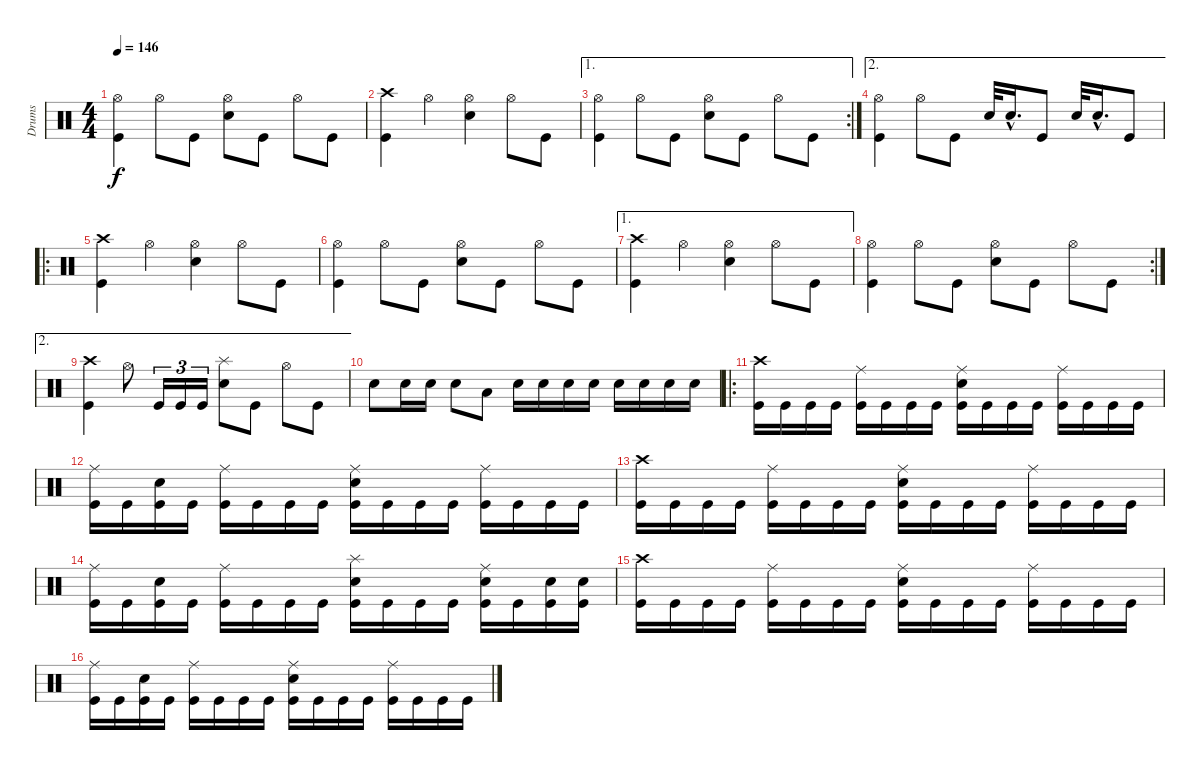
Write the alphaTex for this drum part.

\track ("Drums" "Drums") {instrument percussion}
\staff {score}
\articulation defaults
\ts (4 4)
\tempo 146
\clef neutral
\ks c
("Hi-Hat (open)" "Kick (hit)").4{dy f} "Hi-Hat (open)".8 "Kick (hit)".8 ("Hi-Hat (open)" "Electric Snare (hit)").8 "Kick (hit)".8 "Hi-Hat (open)".8 "Kick (hit)".8 |
("Crash high (hit)" "Kick (hit)").4 "Hi-Hat (open)".4 ("Hi-Hat (open)" "Electric Snare (hit)").4 "Hi-Hat (open)".8 "Kick (hit)".8 |
\ae 1
\rc 2
("Hi-Hat (open)" "Kick (hit)").4 "Hi-Hat (open)".8 "Kick (hit)".8 ("Hi-Hat (open)" "Electric Snare (hit)").8 "Kick (hit)".8 "Hi-Hat (open)".8 "Kick (hit)".8 |
\ae 2
("Hi-Hat (open)" "Kick (hit)").4 "Hi-Hat (open)".8 "Kick (hit)".8 "Electric Snare (hit)".32 "Electric Snare (hit)"{hac}.16{d} "Kick (hit)".8 "Electric Snare (hit)".32 "Electric Snare (hit)"{hac}.16{d} "Kick (hit)".8 |
\ro
("Crash high (hit)" "Kick (hit)").4 "Hi-Hat (open)".4 ("Hi-Hat (open)" "Electric Snare (hit)").4 "Hi-Hat (open)".8 "Kick (hit)".8 |
("Hi-Hat (open)" "Kick (hit)").4 "Hi-Hat (open)".8 "Kick (hit)".8 ("Hi-Hat (open)" "Electric Snare (hit)").8 "Kick (hit)".8 "Hi-Hat (open)".8 "Kick (hit)".8 |
\ae 1
("Crash high (hit)" "Kick (hit)").4 "Hi-Hat (open)".4 ("Hi-Hat (open)" "Electric Snare (hit)").4 "Hi-Hat (open)".8 "Kick (hit)".8 |
\rc 2
("Hi-Hat (open)" "Kick (hit)").4 "Hi-Hat (open)".8 "Kick (hit)".8 ("Hi-Hat (open)" "Electric Snare (hit)").8 "Kick (hit)".8 "Hi-Hat (open)".8 "Kick (hit)".8 |
\ae 2
("Crash high (hit)" "Kick (hit)").4 "Hi-Hat (open)".8 "Kick (hit)".16{tu (3 2)} "Kick (hit)".16{tu (3 2)} "Kick (hit)".16{tu (3 2)} ("Splash (hit)" "Electric Snare (hit)").8 "Kick (hit)".8 "Hi-Hat (open)".8 "Kick (hit)".8 |
"Electric Snare (hit)".8 "Electric Snare (hit)".16 "Electric Snare (hit)".16 "Electric Snare (hit)".8 "Low Tom (hit)".8 "Electric Snare (hit)".16 "Electric Snare (hit)".16 "Electric Snare (hit)".16 "Electric Snare (hit)".16 "Electric Snare (hit)".16 "Electric Snare (hit)".16 "Electric Snare (hit)".16 "Electric Snare (hit)".16 |
\ro
("Crash high (hit)" "Kick (hit)").16 "Kick (hit)".16 "Kick (hit)".16 "Kick (hit)".16 ("Ride (middle)" "Kick (hit)").16 "Kick (hit)".16 "Kick (hit)".16 "Kick (hit)".16 ("Ride (middle)" "Electric Snare (hit)" "Kick (hit)").16 "Kick (hit)".16 "Kick (hit)".16 "Kick (hit)".16 ("Ride (middle)" "Kick (hit)").16 "Kick (hit)".16 "Kick (hit)".16 "Kick (hit)".16 |
("Ride (middle)" "Kick (hit)").16 "Kick (hit)".16 ("Electric Snare (hit)" "Kick (hit)").16 "Kick (hit)".16 ("Ride (middle)" "Kick (hit)").16 "Kick (hit)".16 "Kick (hit)".16 "Kick (hit)".16 ("Ride (middle)" "Electric Snare (hit)" "Kick (hit)").16 "Kick (hit)".16 "Kick (hit)".16 "Kick (hit)".16 ("Ride (middle)" "Kick (hit)").16 "Kick (hit)".16 "Kick (hit)".16 "Kick (hit)".16 |
("Crash high (hit)" "Kick (hit)").16 "Kick (hit)".16 "Kick (hit)".16 "Kick (hit)".16 ("Ride (middle)" "Kick (hit)").16 "Kick (hit)".16 "Kick (hit)".16 "Kick (hit)".16 ("Ride (middle)" "Electric Snare (hit)" "Kick (hit)").16 "Kick (hit)".16 "Kick (hit)".16 "Kick (hit)".16 ("Ride (middle)" "Kick (hit)").16 "Kick (hit)".16 "Kick (hit)".16 "Kick (hit)".16 |
("Ride (middle)" "Kick (hit)").16 "Kick (hit)".16 ("Electric Snare (hit)" "Kick (hit)").16 "Kick (hit)".16 ("Ride (middle)" "Kick (hit)").16 "Kick (hit)".16 "Kick (hit)".16 "Kick (hit)".16 ("Splash (hit)" "Electric Snare (hit)" "Kick (hit)").16 "Kick (hit)".16 "Kick (hit)".16 "Kick (hit)".16 ("Ride (middle)" "Electric Snare (hit)" "Kick (hit)").16 "Kick (hit)".16 ("Electric Snare (hit)" "Kick (hit)").16 ("Electric Snare (hit)" "Kick (hit)").16 |
("Crash high (hit)" "Kick (hit)").16 "Kick (hit)".16 "Kick (hit)".16 "Kick (hit)".16 ("Ride (middle)" "Kick (hit)").16 "Kick (hit)".16 "Kick (hit)".16 "Kick (hit)".16 ("Ride (middle)" "Electric Snare (hit)" "Kick (hit)").16 "Kick (hit)".16 "Kick (hit)".16 "Kick (hit)".16 ("Ride (middle)" "Kick (hit)").16 "Kick (hit)".16 "Kick (hit)".16 "Kick (hit)".16 |
("Ride (middle)" "Kick (hit)").16 "Kick (hit)".16 ("Electric Snare (hit)" "Kick (hit)").16 "Kick (hit)".16 ("Ride (middle)" "Kick (hit)").16 "Kick (hit)".16 "Kick (hit)".16 "Kick (hit)".16 ("Ride (middle)" "Electric Snare (hit)" "Kick (hit)").16 "Kick (hit)".16 "Kick (hit)".16 "Kick (hit)".16 ("Ride (middle)" "Kick (hit)").16 "Kick (hit)".16 "Kick (hit)".16 "Kick (hit)".16
